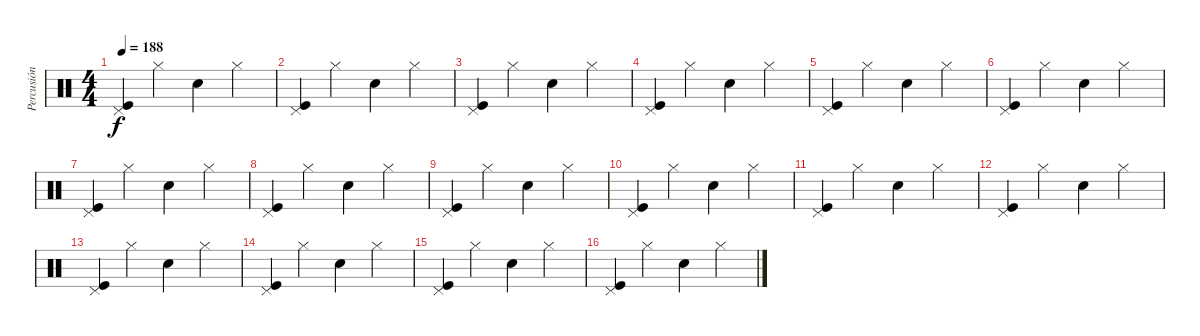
\track ("Percusión" "Percusión") {instrument percussion}
\staff {score}
\articulation defaults
\ts (4 4)
\tempo 188
\clef neutral
\ks c
("Kick (hit)" "Pedal Hi-Hat (hit)").4{dy f} "Hi-Hat (closed)"{x}.4 "Electric Snare (hit)".4 "Hi-Hat (closed)".4 |
("Kick (hit)" "Pedal Hi-Hat (hit)").4 "Hi-Hat (closed)"{x}.4 "Electric Snare (hit)".4 "Hi-Hat (closed)".4 |
("Kick (hit)" "Pedal Hi-Hat (hit)").4 "Hi-Hat (closed)"{x}.4 "Electric Snare (hit)".4 "Hi-Hat (closed)".4 |
("Kick (hit)" "Pedal Hi-Hat (hit)").4 "Hi-Hat (closed)"{x}.4 "Electric Snare (hit)".4 "Hi-Hat (closed)".4 |
("Kick (hit)" "Pedal Hi-Hat (hit)").4 "Hi-Hat (closed)"{x}.4 "Electric Snare (hit)".4 "Hi-Hat (closed)".4 |
("Kick (hit)" "Pedal Hi-Hat (hit)").4 "Hi-Hat (closed)"{x}.4 "Electric Snare (hit)".4 "Hi-Hat (closed)".4 |
("Kick (hit)" "Pedal Hi-Hat (hit)").4 "Hi-Hat (closed)"{x}.4 "Electric Snare (hit)".4 "Hi-Hat (closed)".4 |
("Kick (hit)" "Pedal Hi-Hat (hit)").4 "Hi-Hat (closed)"{x}.4 "Electric Snare (hit)".4 "Hi-Hat (closed)".4 |
("Kick (hit)" "Pedal Hi-Hat (hit)").4 "Hi-Hat (closed)"{x}.4 "Electric Snare (hit)".4 "Hi-Hat (closed)".4 |
("Kick (hit)" "Pedal Hi-Hat (hit)").4 "Hi-Hat (closed)"{x}.4 "Electric Snare (hit)".4 "Hi-Hat (closed)".4 |
("Kick (hit)" "Pedal Hi-Hat (hit)").4 "Hi-Hat (closed)"{x}.4 "Electric Snare (hit)".4 "Hi-Hat (closed)".4 |
("Kick (hit)" "Pedal Hi-Hat (hit)").4 "Hi-Hat (closed)"{x}.4 "Electric Snare (hit)".4 "Hi-Hat (closed)".4 |
("Kick (hit)" "Pedal Hi-Hat (hit)").4 "Hi-Hat (closed)"{x}.4 "Electric Snare (hit)".4 "Hi-Hat (closed)".4 |
("Kick (hit)" "Pedal Hi-Hat (hit)").4 "Hi-Hat (closed)"{x}.4 "Electric Snare (hit)".4 "Hi-Hat (closed)".4 |
("Kick (hit)" "Pedal Hi-Hat (hit)").4 "Hi-Hat (closed)"{x}.4 "Electric Snare (hit)".4 "Hi-Hat (closed)".4 |
("Kick (hit)" "Pedal Hi-Hat (hit)").4 "Hi-Hat (closed)"{x}.4 "Electric Snare (hit)".4 "Hi-Hat (closed)".4
